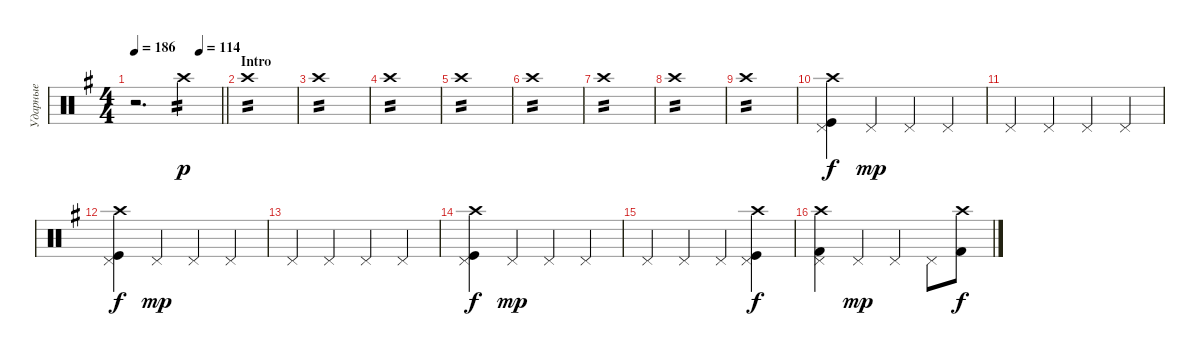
\track ("Ударные" "Ударные") {instrument percussion}
\staff {score}
\articulation defaults
\ts (4 4)
\tempo 186
\tempo (114 0.75)
\tempo 186
\clef neutral
\barLineRight lightlight
\ks eminor
r.2{d dy p volume 0} "Crash high (hit)".4{tp 2 volume 16} |
\section ("" "Intro")
"Crash high (hit)".1{tp 2} |
"Crash high (hit)".1{tp 2 volume 5} |
"Crash high (hit)".1{tp 2 volume 16} |
"Crash high (hit)".1{tp 2 volume 5} |
"Crash high (hit)".1{tp 2 volume 16} |
"Crash high (hit)".1{tp 2 volume 5} |
"Crash high (hit)".1{tp 2 volume 16} |
"Crash high (hit)".1{tp 2 volume 5} |
("Kick (hit)" "Crash high (hit)" "Pedal Hi-Hat (hit)").4{dy f volume 16} "Pedal Hi-Hat (hit)".4{dy mp} "Pedal Hi-Hat (hit)".4 "Pedal Hi-Hat (hit)".4 |
"Pedal Hi-Hat (hit)".4 "Pedal Hi-Hat (hit)".4 "Pedal Hi-Hat (hit)".4 "Pedal Hi-Hat (hit)".4 |
("Kick (hit)" "Crash high (hit)" "Pedal Hi-Hat (hit)").4{dy f} "Pedal Hi-Hat (hit)".4{dy mp} "Pedal Hi-Hat (hit)".4 "Pedal Hi-Hat (hit)".4 |
"Pedal Hi-Hat (hit)".4 "Pedal Hi-Hat (hit)".4 "Pedal Hi-Hat (hit)".4 "Pedal Hi-Hat (hit)".4 |
("Kick (hit)" "Crash high (hit)" "Pedal Hi-Hat (hit)").4{dy f} "Pedal Hi-Hat (hit)".4{dy mp} "Pedal Hi-Hat (hit)".4 "Pedal Hi-Hat (hit)".4 |
"Pedal Hi-Hat (hit)".4 "Pedal Hi-Hat (hit)".4 "Pedal Hi-Hat (hit)".4 ("Pedal Hi-Hat (hit)" "Kick (hit)" "Crash high (hit)").4{dy f} |
("Kick (hit) 2" "Crash high (hit)" "Pedal Hi-Hat (hit)").4 "Pedal Hi-Hat (hit)".4{dy mp} "Pedal Hi-Hat (hit)".4 "Pedal Hi-Hat (hit)".8 ("Kick (hit) 2" "Crash high (hit)").8{dy f}
